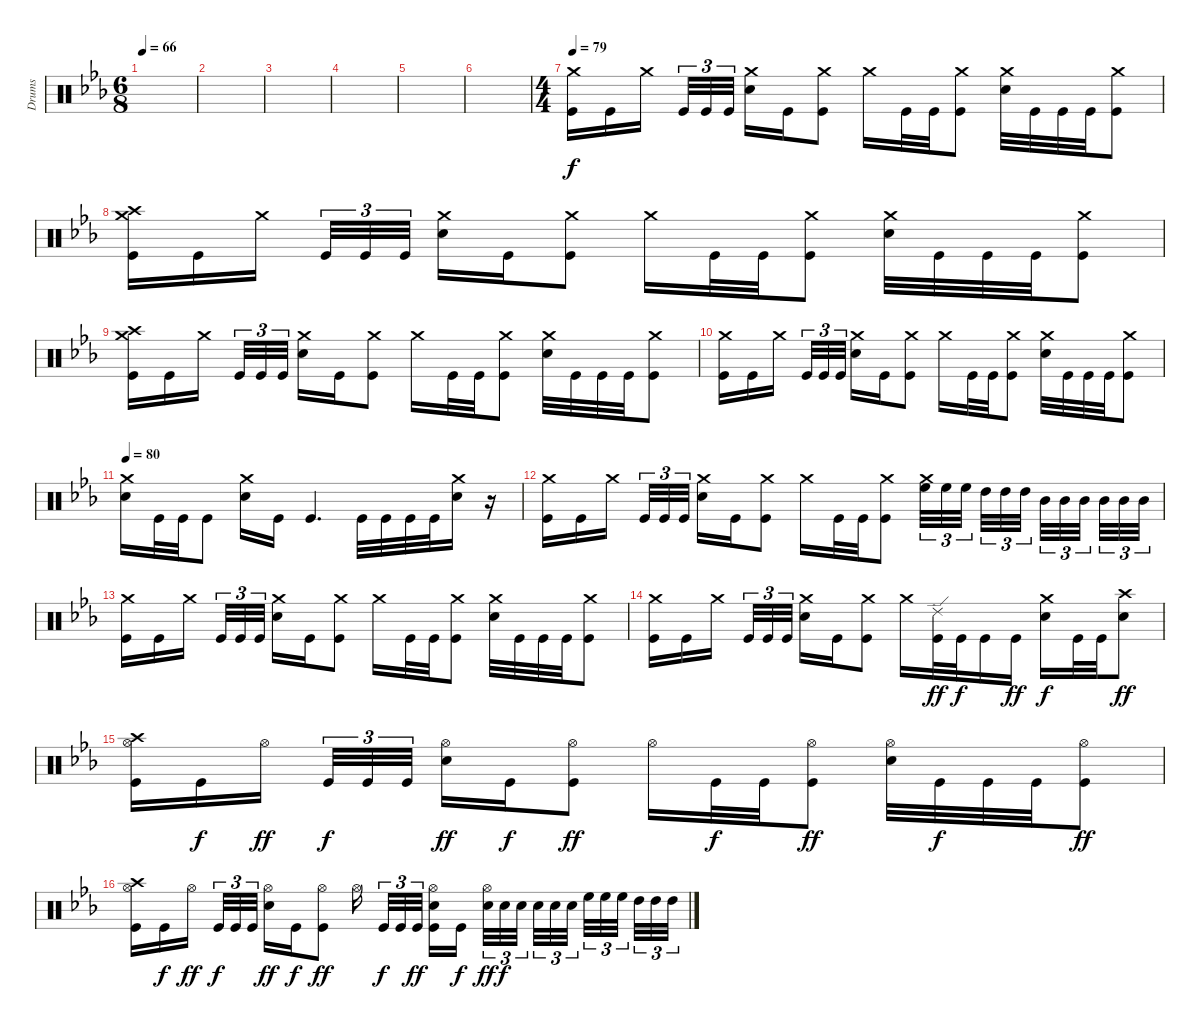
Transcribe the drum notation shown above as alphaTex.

\track ("Drums" "Drums") {instrument percussion}
\staff {score}
\articulation defaults
\ts (6 8)
\tempo 66
\clef neutral
\ks cminor
|
|
|
|
|
|
\ts (4 4)
\tempo 79
("Crash medium (hit)" "Kick (hit)").16 "Kick (hit)".16 "Crash medium (hit)".16{beam splitsecondary} "Kick (hit)".32{tu (3 2)} "Kick (hit)".32{tu (3 2)} "Kick (hit)".32{tu (3 2)} ("Crash medium (hit)" "Electric Snare (hit)").16 "Kick (hit)".16 ("Crash medium (hit)" "Kick (hit)").8 "Crash medium (hit)".16 "Kick (hit)".32 "Kick (hit)".32 ("Crash medium (hit)" "Kick (hit)").8 ("Crash medium (hit)" "Electric Snare (hit)").32 "Kick (hit)".32 "Kick (hit)".32 "Kick (hit)".32 ("Crash medium (hit)" "Kick (hit)").8 |
("Crash medium (hit)" "Crash high (hit)" "Kick (hit)").16 "Kick (hit)".16 "Crash medium (hit)".16{beam splitsecondary} "Kick (hit)".32{tu (3 2)} "Kick (hit)".32{tu (3 2)} "Kick (hit)".32{tu (3 2)} ("Crash medium (hit)" "Electric Snare (hit)").16 "Kick (hit)".16 ("Crash medium (hit)" "Kick (hit)").8 "Crash medium (hit)".16 "Kick (hit)".32 "Kick (hit)".32 ("Crash medium (hit)" "Kick (hit)").8 ("Crash medium (hit)" "Electric Snare (hit)").32 "Kick (hit)".32 "Kick (hit)".32 "Kick (hit)".32 ("Crash medium (hit)" "Kick (hit)").8 |
("Crash medium (hit)" "Crash high (hit)" "Kick (hit)").16 "Kick (hit)".16 "Crash medium (hit)".16{beam splitsecondary} "Kick (hit)".32{tu (3 2)} "Kick (hit)".32{tu (3 2)} "Kick (hit)".32{tu (3 2)} ("Crash medium (hit)" "Electric Snare (hit)").16 "Kick (hit)".16 ("Crash medium (hit)" "Kick (hit)").8 "Crash medium (hit)".16 "Kick (hit)".32 "Kick (hit)".32 ("Crash medium (hit)" "Kick (hit)").8 ("Crash medium (hit)" "Electric Snare (hit)").32 "Kick (hit)".32 "Kick (hit)".32 "Kick (hit)".32 ("Crash medium (hit)" "Kick (hit)").8 |
("Crash medium (hit)" "Kick (hit)").16 "Kick (hit)".16 "Crash medium (hit)".16{beam splitsecondary} "Kick (hit)".32{tu (3 2)} "Kick (hit)".32{tu (3 2)} "Kick (hit)".32{tu (3 2)} ("Crash medium (hit)" "Electric Snare (hit)").16 "Kick (hit)".16 ("Crash medium (hit)" "Kick (hit)").8 "Crash medium (hit)".16 "Kick (hit)".32 "Kick (hit)".32 ("Crash medium (hit)" "Kick (hit)").8 ("Crash medium (hit)" "Electric Snare (hit)").32 "Kick (hit)".32 "Kick (hit)".32 "Kick (hit)".32 ("Crash medium (hit)" "Kick (hit)").8 |
\tempo 80
("Crash medium (hit)" "Electric Snare (hit)").16 "Kick (hit)".32 "Kick (hit)".32 "Kick (hit)".8 ("Crash medium (hit)" "Electric Snare (hit)").16 "Kick (hit)".16 "Kick (hit)".4{d} "Kick (hit)".32 "Kick (hit)".32 "Kick (hit)".32 "Kick (hit)".32 ("Crash medium (hit)" "Electric Snare (hit)").16 r.16 |
("Crash medium (hit)" "Kick (hit)").16 "Kick (hit)".16 "Crash medium (hit)".16{beam splitsecondary} "Kick (hit)".32{tu (3 2)} "Kick (hit)".32{tu (3 2)} "Kick (hit)".32{tu (3 2)} ("Crash medium (hit)" "Electric Snare (hit)").16 "Kick (hit)".16 ("Crash medium (hit)" "Kick (hit)").8 "Crash medium (hit)".16 "Kick (hit)".32 "Kick (hit)".32 ("Crash medium (hit)" "Kick (hit)").8 ("Crash medium (hit)" "High Floor Tom (hit)").32{tu (3 2)} "High Floor Tom (hit)".32{tu (3 2)} "High Floor Tom (hit)".32{tu (3 2) beam splitsecondary} "High Tom (hit)".32{tu (3 2)} "High Tom (hit)".32{tu (3 2)} "High Tom (hit)".32{tu (3 2) beam splitsecondary} "Mid Tom (hit)".32{tu (3 2)} "Mid Tom (hit)".32{tu (3 2)} "Mid Tom (hit)".32{tu (3 2) beam splitsecondary} "Mid Tom (hit)".32{tu (3 2)} "Mid Tom (hit)".32{tu (3 2)} "Mid Tom (hit)".32{tu (3 2)} |
("Crash medium (hit)" "Kick (hit)").16 "Kick (hit)".16 "Crash medium (hit)".16{beam splitsecondary} "Kick (hit)".32{tu (3 2)} "Kick (hit)".32{tu (3 2)} "Kick (hit)".32{tu (3 2)} ("Crash medium (hit)" "Electric Snare (hit)").16 "Kick (hit)".16 ("Crash medium (hit)" "Kick (hit)").8 "Crash medium (hit)".16 "Kick (hit)".32 "Kick (hit)".32 ("Crash medium (hit)" "Kick (hit)").8 ("Crash medium (hit)" "Electric Snare (hit)").32 "Kick (hit)".32 "Kick (hit)".32 "Kick (hit)".32 ("Crash medium (hit)" "Kick (hit)").8 |
("Crash medium (hit)" "Kick (hit)").16 "Kick (hit)".16 "Crash medium (hit)".16{beam splitsecondary} "Kick (hit)".32{tu (3 2)} "Kick (hit)".32{tu (3 2)} "Kick (hit)".32{tu (3 2)} ("Crash medium (hit)" "Electric Snare (hit)").16 "Kick (hit)".16 ("Crash medium (hit)" "Kick (hit)").8 "Crash medium (hit)".16 ("Ride (edge) 2" "Kick (hit)").32{dy ff} "Kick (hit)".32{dy f} "Kick (hit)".16 "Kick (hit)".16{dy ff} ("Crash medium (hit)" "Electric Snare (hit)").16{dy f} "Kick (hit)".32 "Kick (hit)".32 ("Crash high (hit)" "Electric Snare (hit)").8{dy ff} |
("Crash high (hit)" "Hi-Hat (open)" "Kick (hit)").16 "Kick (hit)".16{dy f} "Hi-Hat (open)".16{dy ff beam splitsecondary} "Kick (hit)".32{tu (3 2) dy f} "Kick (hit)".32{tu (3 2)} "Kick (hit)".32{tu (3 2)} ("Hi-Hat (open)" "Electric Snare (hit)").16{dy ff} "Kick (hit)".16{dy f} ("Hi-Hat (open)" "Kick (hit)").8{dy ff} "Hi-Hat (open)".16 "Kick (hit)".32{dy f} "Kick (hit)".32 ("Hi-Hat (open)" "Kick (hit)").8{dy ff} ("Hi-Hat (open)" "Electric Snare (hit)").32 "Kick (hit)".32{dy f} "Kick (hit)".32 "Kick (hit)".32 ("Hi-Hat (open)" "Kick (hit)").8{dy ff} |
("Crash high (hit)" "Hi-Hat (open)" "Kick (hit)").16 "Kick (hit)".16{dy f} "Hi-Hat (open)".16{dy ff beam splitsecondary} "Kick (hit)".32{tu (3 2) dy f} "Kick (hit)".32{tu (3 2)} "Kick (hit)".32{tu (3 2)} ("Hi-Hat (open)" "Electric Snare (hit)").16{dy ff} "Kick (hit)".16{dy f} ("Hi-Hat (open)" "Kick (hit)").8{dy ff} "Hi-Hat (open)".16{beam splitsecondary} "Kick (hit)".32{tu (3 2) dy f} "Kick (hit)".32{tu (3 2)} "Kick (hit)".32{tu (3 2) dy ff beam splitsecondary} ("Hi-Hat (open)" "Electric Snare (hit)" "Kick (hit)").16 "Kick (hit)".16{dy f} ("Hi-Hat (open)" "Electric Snare (hit)").32{tu (3 2) dy ff} "Electric Snare (hit)".32{tu (3 2) dy f} "Electric Snare (hit)".32{tu (3 2) beam splitsecondary} "Electric Snare (hit)".32{tu (3 2)} "Electric Snare (hit)".32{tu (3 2)} "Electric Snare (hit)".32{tu (3 2) beam splitsecondary} "High Floor Tom (hit)".32{tu (3 2)} "High Floor Tom (hit)".32{tu (3 2)} "High Floor Tom (hit)".32{tu (3 2) beam splitsecondary} "High Tom (hit)".32{tu (3 2)} "High Tom (hit)".32{tu (3 2)} "High Tom (hit)".32{tu (3 2)}
